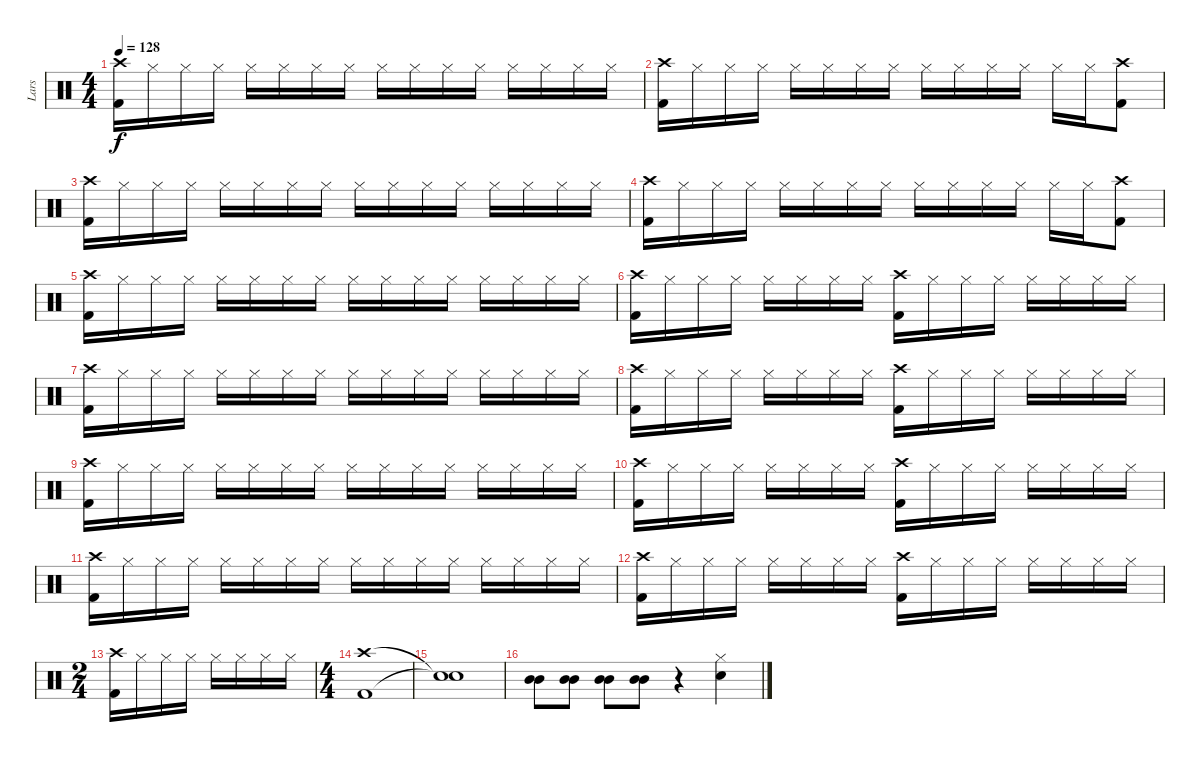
\track ("Lars" "Lars") {instrument percussion}
\staff {score}
\articulation defaults
\ts (4 4)
\tempo 128
\clef neutral
\ks c
("Crash high (hit)" "Kick (hit) 2").16{dy f} "Hi-Hat (closed)".16 "Hi-Hat (closed)".16 "Hi-Hat (closed)".16 "Hi-Hat (closed)".16 "Hi-Hat (closed)".16 "Hi-Hat (closed)".16 "Hi-Hat (closed)".16 "Hi-Hat (closed)".16 "Hi-Hat (closed)".16 "Hi-Hat (closed)".16 "Hi-Hat (closed)".16 "Hi-Hat (closed)".16 "Hi-Hat (closed)".16 "Hi-Hat (closed)".16 "Hi-Hat (closed)".16 |
("Crash high (hit)" "Kick (hit) 2").16 "Hi-Hat (closed)".16 "Hi-Hat (closed)".16 "Hi-Hat (closed)".16 "Hi-Hat (closed)".16 "Hi-Hat (closed)".16 "Hi-Hat (closed)".16 "Hi-Hat (closed)".16 "Hi-Hat (closed)".16 "Hi-Hat (closed)".16 "Hi-Hat (closed)".16 "Hi-Hat (closed)".16 "Hi-Hat (closed)".16 "Hi-Hat (closed)".16 ("Crash high (hit)" "Kick (hit) 2").8 |
("Crash high (hit)" "Kick (hit) 2").16 "Hi-Hat (closed)".16 "Hi-Hat (closed)".16 "Hi-Hat (closed)".16 "Hi-Hat (closed)".16 "Hi-Hat (closed)".16 "Hi-Hat (closed)".16 "Hi-Hat (closed)".16 "Hi-Hat (closed)".16 "Hi-Hat (closed)".16 "Hi-Hat (closed)".16 "Hi-Hat (closed)".16 "Hi-Hat (closed)".16 "Hi-Hat (closed)".16 "Hi-Hat (closed)".16 "Hi-Hat (closed)".16 |
("Crash high (hit)" "Kick (hit) 2").16 "Hi-Hat (closed)".16 "Hi-Hat (closed)".16 "Hi-Hat (closed)".16 "Hi-Hat (closed)".16 "Hi-Hat (closed)".16 "Hi-Hat (closed)".16 "Hi-Hat (closed)".16 "Hi-Hat (closed)".16 "Hi-Hat (closed)".16 "Hi-Hat (closed)".16 "Hi-Hat (closed)".16 "Hi-Hat (closed)".16 "Hi-Hat (closed)".16 ("Crash high (hit)" "Kick (hit) 2").8 |
("Crash high (hit)" "Kick (hit) 2").16 "Hi-Hat (closed)".16 "Hi-Hat (closed)".16 "Hi-Hat (closed)".16 "Hi-Hat (closed)".16 "Hi-Hat (closed)".16 "Hi-Hat (closed)".16 "Hi-Hat (closed)".16 "Hi-Hat (closed)".16 "Hi-Hat (closed)".16 "Hi-Hat (closed)".16 "Hi-Hat (closed)".16 "Hi-Hat (closed)".16 "Hi-Hat (closed)".16 "Hi-Hat (closed)".16 "Hi-Hat (closed)".16 |
("Crash high (hit)" "Kick (hit) 2").16 "Hi-Hat (closed)".16 "Hi-Hat (closed)".16 "Hi-Hat (closed)".16 "Hi-Hat (closed)".16 "Hi-Hat (closed)".16 "Hi-Hat (closed)".16 "Hi-Hat (closed)".16 ("Crash high (hit)" "Kick (hit) 2").16 "Hi-Hat (closed)".16 "Hi-Hat (closed)".16 "Hi-Hat (closed)".16 "Hi-Hat (closed)".16 "Hi-Hat (closed)".16 "Hi-Hat (closed)".16 "Hi-Hat (closed)".16 |
("Crash high (hit)" "Kick (hit) 2").16 "Hi-Hat (closed)".16 "Hi-Hat (closed)".16 "Hi-Hat (closed)".16 "Hi-Hat (closed)".16 "Hi-Hat (closed)".16 "Hi-Hat (closed)".16 "Hi-Hat (closed)".16 "Hi-Hat (closed)".16 "Hi-Hat (closed)".16 "Hi-Hat (closed)".16 "Hi-Hat (closed)".16 "Hi-Hat (closed)".16 "Hi-Hat (closed)".16 "Hi-Hat (closed)".16 "Hi-Hat (closed)".16 |
("Crash high (hit)" "Kick (hit) 2").16 "Hi-Hat (closed)".16 "Hi-Hat (closed)".16 "Hi-Hat (closed)".16 "Hi-Hat (closed)".16 "Hi-Hat (closed)".16 "Hi-Hat (closed)".16 "Hi-Hat (closed)".16 ("Crash high (hit)" "Kick (hit) 2").16 "Hi-Hat (closed)".16 "Hi-Hat (closed)".16 "Hi-Hat (closed)".16 "Hi-Hat (closed)".16 "Hi-Hat (closed)".16 "Hi-Hat (closed)".16 "Hi-Hat (closed)".16 |
("Crash high (hit)" "Kick (hit) 2").16 "Hi-Hat (closed)".16 "Hi-Hat (closed)".16 "Hi-Hat (closed)".16 "Hi-Hat (closed)".16 "Hi-Hat (closed)".16 "Hi-Hat (closed)".16 "Hi-Hat (closed)".16 "Hi-Hat (closed)".16 "Hi-Hat (closed)".16 "Hi-Hat (closed)".16 "Hi-Hat (closed)".16 "Hi-Hat (closed)".16 "Hi-Hat (closed)".16 "Hi-Hat (closed)".16 "Hi-Hat (closed)".16 |
("Crash high (hit)" "Kick (hit) 2").16 "Hi-Hat (closed)".16 "Hi-Hat (closed)".16 "Hi-Hat (closed)".16 "Hi-Hat (closed)".16 "Hi-Hat (closed)".16 "Hi-Hat (closed)".16 "Hi-Hat (closed)".16 ("Crash high (hit)" "Kick (hit) 2").16 "Hi-Hat (closed)".16 "Hi-Hat (closed)".16 "Hi-Hat (closed)".16 "Hi-Hat (closed)".16 "Hi-Hat (closed)".16 "Hi-Hat (closed)".16 "Hi-Hat (closed)".16 |
("Crash high (hit)" "Kick (hit) 2").16 "Hi-Hat (closed)".16 "Hi-Hat (closed)".16 "Hi-Hat (closed)".16 "Hi-Hat (closed)".16 "Hi-Hat (closed)".16 "Hi-Hat (closed)".16 "Hi-Hat (closed)".16 "Hi-Hat (closed)".16 "Hi-Hat (closed)".16 "Hi-Hat (closed)".16 "Hi-Hat (closed)".16 "Hi-Hat (closed)".16 "Hi-Hat (closed)".16 "Hi-Hat (closed)".16 "Hi-Hat (closed)".16 |
("Crash high (hit)" "Kick (hit) 2").16 "Hi-Hat (closed)".16 "Hi-Hat (closed)".16 "Hi-Hat (closed)".16 "Hi-Hat (closed)".16 "Hi-Hat (closed)".16 "Hi-Hat (closed)".16 "Hi-Hat (closed)".16 ("Crash high (hit)" "Kick (hit) 2").16 "Hi-Hat (closed)".16 "Hi-Hat (closed)".16 "Hi-Hat (closed)".16 "Hi-Hat (closed)".16 "Hi-Hat (closed)".16 "Hi-Hat (closed)".16 "Hi-Hat (closed)".16 |
\ts (2 4)
("Crash high (hit)" "Kick (hit) 2").16 "Hi-Hat (closed)".16 "Hi-Hat (closed)".16 "Hi-Hat (closed)".16 "Hi-Hat (closed)".16 "Hi-Hat (closed)".16 "Hi-Hat (closed)".16 "Hi-Hat (closed)".16 |
\ts (4 4)
("Crash high (hit)" "Kick (hit) 2").1 |
("Snare (hit)"{t} "Snare (hit)"{t}).1 |
("Mid Tom (hit)" "Mid Tom (hit)").8 ("Mid Tom (hit)" "Mid Tom (hit)").8 ("Mid Tom (hit)" "Mid Tom (hit)").8 ("Mid Tom (hit)" "Mid Tom (hit)").8 r.4 ("Hi-Hat (closed)" "Electric Snare (hit)").4
